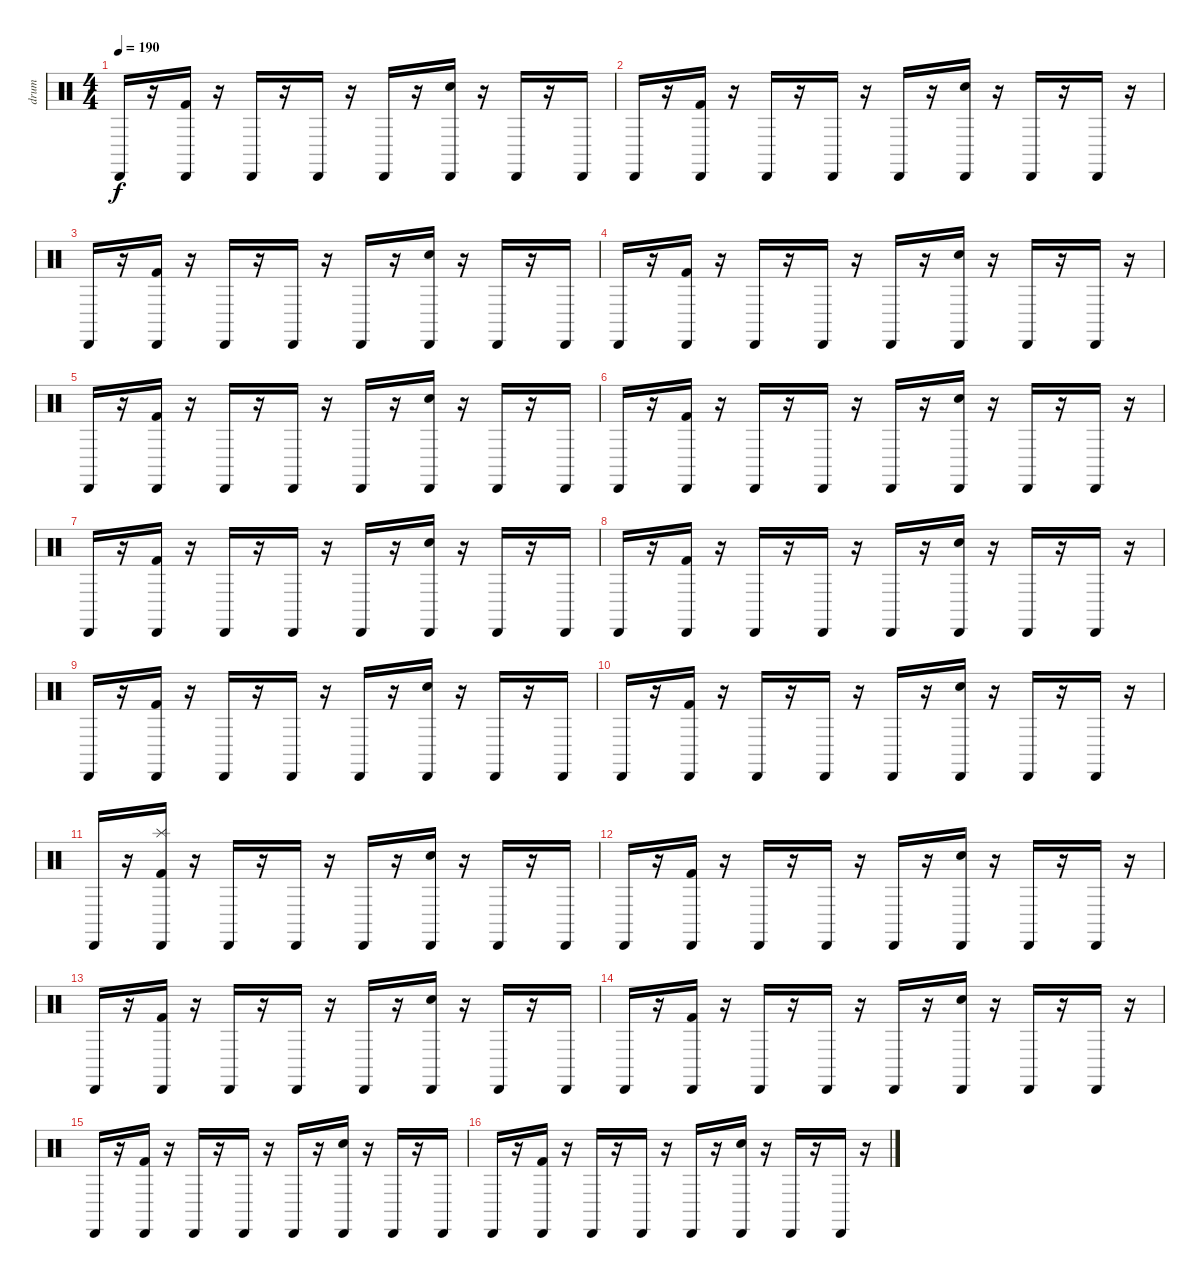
\track ("drum" "drum") {instrument percussion}
\staff {score}
\articulation defaults
\ts (4 4)
\tempo 190
\clef neutral
\ks c "Cabasa (hit)".16{dy f}
r.16 ("Cabasa (hit)" "Kick (hit) 2").16 r.16 "Cabasa (hit)".16 r.16 "Cabasa (hit)".16 r.16 "Cabasa (hit)".16 r.16 ("Cabasa (hit)" "Snare (hit) 2").16 r.16 "Cabasa (hit)".16 r.16 "Cabasa (hit)".16 |
"Cabasa (hit)".16 r.16 ("Cabasa (hit)" "Kick (hit) 2").16 r.16 "Cabasa (hit)".16 r.16 "Cabasa (hit)".16 r.16 "Cabasa (hit)".16 r.16 ("Cabasa (hit)" "Snare (hit) 2").16 r.16 "Cabasa (hit)".16 r.16 "Cabasa (hit)".16 r.16 |
"Cabasa (hit)".16 r.16 ("Cabasa (hit)" "Kick (hit) 2").16 r.16 "Cabasa (hit)".16 r.16 "Cabasa (hit)".16 r.16 "Cabasa (hit)".16 r.16 ("Cabasa (hit)" "Snare (hit) 2").16 r.16 "Cabasa (hit)".16 r.16 "Cabasa (hit)".16 |
"Cabasa (hit)".16 r.16 ("Cabasa (hit)" "Kick (hit) 2").16 r.16 "Cabasa (hit)".16 r.16 "Cabasa (hit)".16 r.16 "Cabasa (hit)".16 r.16 ("Cabasa (hit)" "Snare (hit) 2").16 r.16 "Cabasa (hit)".16 r.16 "Cabasa (hit)".16 r.16 |
"Cabasa (hit)".16 r.16 ("Cabasa (hit)" "Kick (hit) 2").16 r.16 "Cabasa (hit)".16 r.16 "Cabasa (hit)".16 r.16 "Cabasa (hit)".16 r.16 ("Cabasa (hit)" "Snare (hit) 2").16 r.16 "Cabasa (hit)".16 r.16 "Cabasa (hit)".16 |
"Cabasa (hit)".16 r.16 ("Cabasa (hit)" "Kick (hit) 2").16 r.16 "Cabasa (hit)".16 r.16 "Cabasa (hit)".16 r.16 "Cabasa (hit)".16 r.16 ("Cabasa (hit)" "Snare (hit) 2").16 r.16 "Cabasa (hit)".16 r.16 "Cabasa (hit)".16 r.16 |
"Cabasa (hit)".16 r.16 ("Cabasa (hit)" "Kick (hit) 2").16 r.16 "Cabasa (hit)".16 r.16 "Cabasa (hit)".16 r.16 "Cabasa (hit)".16 r.16 ("Cabasa (hit)" "Snare (hit) 2").16 r.16 "Cabasa (hit)".16 r.16 "Cabasa (hit)".16 |
"Cabasa (hit)".16 r.16 ("Cabasa (hit)" "Kick (hit) 2").16 r.16 "Cabasa (hit)".16 r.16 "Cabasa (hit)".16 r.16 "Cabasa (hit)".16 r.16 ("Cabasa (hit)" "Snare (hit) 2").16 r.16 "Cabasa (hit)".16 r.16 "Cabasa (hit)".16 r.16 |
"Cabasa (hit)".16 r.16 ("Cabasa (hit)" "Kick (hit) 2").16 r.16 "Cabasa (hit)".16 r.16 "Cabasa (hit)".16 r.16 "Cabasa (hit)".16 r.16 ("Cabasa (hit)" "Snare (hit) 2").16 r.16 "Cabasa (hit)".16 r.16 "Cabasa (hit)".16 |
"Cabasa (hit)".16 r.16 ("Cabasa (hit)" "Kick (hit) 2").16 r.16 "Cabasa (hit)".16 r.16 "Cabasa (hit)".16 r.16 "Cabasa (hit)".16 r.16 ("Cabasa (hit)" "Snare (hit) 2").16 r.16 "Cabasa (hit)".16 r.16 "Cabasa (hit)".16 r.16 |
"Cabasa (hit)".16 r.16 ("Cabasa (hit)" "Kick (hit) 2" "Splash (hit)").16 r.16 "Cabasa (hit)".16 r.16 "Cabasa (hit)".16 r.16 "Cabasa (hit)".16 r.16 ("Cabasa (hit)" "Snare (hit) 2").16 r.16 "Cabasa (hit)".16 r.16 "Cabasa (hit)".16 |
"Cabasa (hit)".16 r.16 ("Cabasa (hit)" "Kick (hit) 2").16 r.16 "Cabasa (hit)".16 r.16 "Cabasa (hit)".16 r.16 "Cabasa (hit)".16 r.16 ("Cabasa (hit)" "Snare (hit) 2").16 r.16 "Cabasa (hit)".16 r.16 "Cabasa (hit)".16 r.16 |
"Cabasa (hit)".16 r.16 ("Cabasa (hit)" "Kick (hit) 2").16 r.16 "Cabasa (hit)".16 r.16 "Cabasa (hit)".16 r.16 "Cabasa (hit)".16 r.16 ("Cabasa (hit)" "Snare (hit) 2").16 r.16 "Cabasa (hit)".16 r.16 "Cabasa (hit)".16 |
"Cabasa (hit)".16 r.16 ("Cabasa (hit)" "Kick (hit) 2").16 r.16 "Cabasa (hit)".16 r.16 "Cabasa (hit)".16 r.16 "Cabasa (hit)".16 r.16 ("Cabasa (hit)" "Snare (hit) 2").16 r.16 "Cabasa (hit)".16 r.16 "Cabasa (hit)".16 r.16 |
"Cabasa (hit)".16 r.16 ("Cabasa (hit)" "Kick (hit) 2").16 r.16 "Cabasa (hit)".16 r.16 "Cabasa (hit)".16 r.16 "Cabasa (hit)".16 r.16 ("Cabasa (hit)" "Snare (hit) 2").16 r.16 "Cabasa (hit)".16 r.16 "Cabasa (hit)".16 |
"Cabasa (hit)".16 r.16 ("Cabasa (hit)" "Kick (hit) 2").16 r.16 "Cabasa (hit)".16 r.16 "Cabasa (hit)".16 r.16 "Cabasa (hit)".16 r.16 ("Cabasa (hit)" "Snare (hit) 2").16 r.16 "Cabasa (hit)".16 r.16 "Cabasa (hit)".16 r.16
